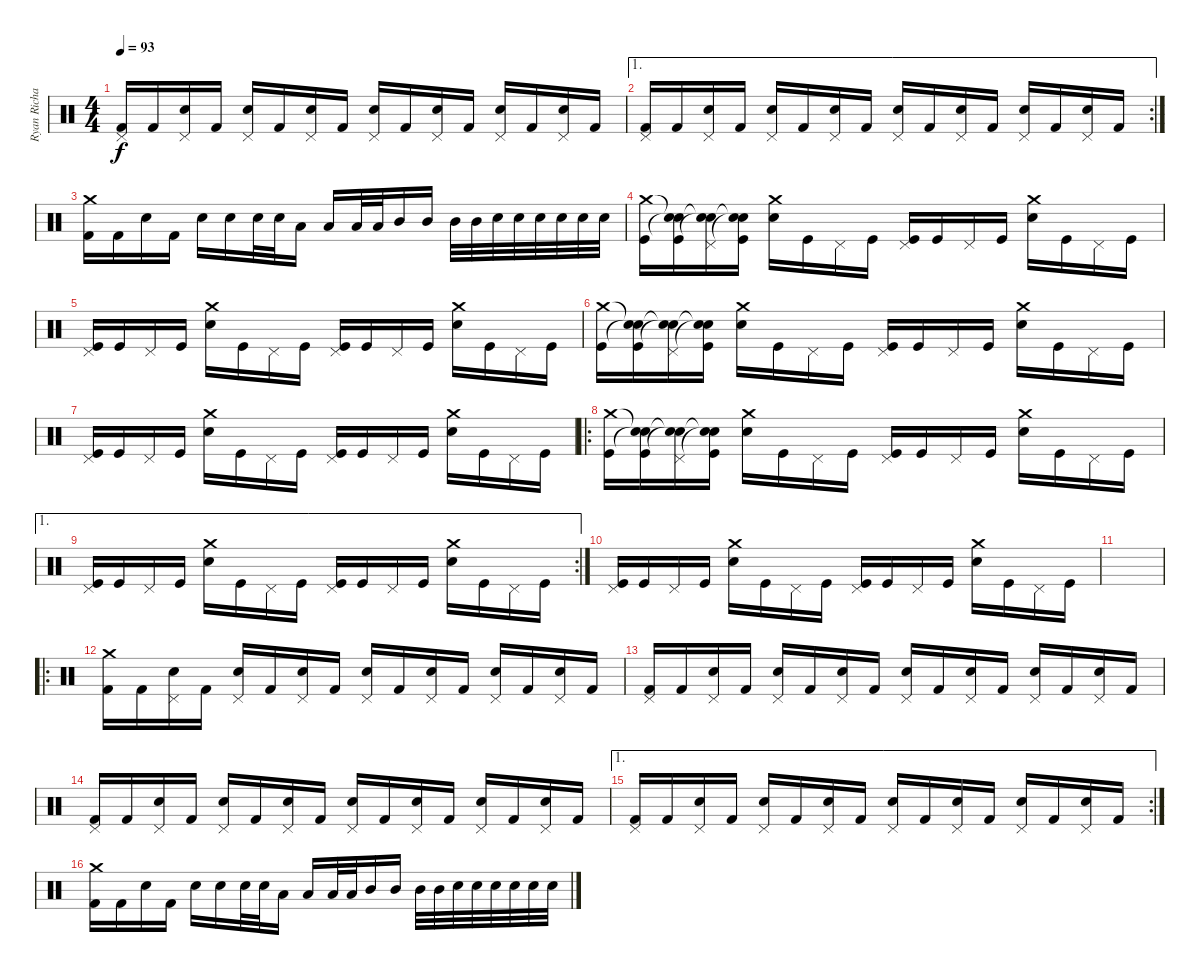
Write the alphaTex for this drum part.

\track ("Ryan Richards" "Ryan Richa") {instrument percussion}
\staff {score}
\articulation defaults
\ts (4 4)
\tempo 93
\clef neutral
\ks c
("Pedal Hi-Hat (hit)" "Kick (hit) 2").16{dy f} "Kick (hit) 2".16 ("Pedal Hi-Hat (hit)" "Electric Snare (hit)").16 "Kick (hit) 2".16 ("Pedal Hi-Hat (hit)" "Electric Snare (hit)").16 "Kick (hit) 2".16 ("Pedal Hi-Hat (hit)" "Electric Snare (hit)").16 "Kick (hit) 2".16 ("Pedal Hi-Hat (hit)" "Electric Snare (hit)").16 "Kick (hit) 2".16 ("Pedal Hi-Hat (hit)" "Electric Snare (hit)").16 "Kick (hit) 2".16 ("Pedal Hi-Hat (hit)" "Electric Snare (hit)").16 "Kick (hit) 2".16 ("Pedal Hi-Hat (hit)" "Electric Snare (hit)").16 "Kick (hit) 2".16 |
\ae 1
\rc 2
("Pedal Hi-Hat (hit)" "Kick (hit) 2").16 "Kick (hit) 2".16 ("Pedal Hi-Hat (hit)" "Electric Snare (hit)").16 "Kick (hit) 2".16 ("Pedal Hi-Hat (hit)" "Electric Snare (hit)").16 "Kick (hit) 2".16 ("Pedal Hi-Hat (hit)" "Electric Snare (hit)").16 "Kick (hit) 2".16 ("Pedal Hi-Hat (hit)" "Electric Snare (hit)").16 "Kick (hit) 2".16 ("Pedal Hi-Hat (hit)" "Electric Snare (hit)").16 "Kick (hit) 2".16 ("Pedal Hi-Hat (hit)" "Electric Snare (hit)").16 "Kick (hit) 2".16 ("Pedal Hi-Hat (hit)" "Electric Snare (hit)").16 "Kick (hit) 2".16 |
("Crash medium (hit)" "Kick (hit) 2").16 "Kick (hit) 2".16 "Electric Snare (hit)".16 "Kick (hit) 2".16 "Electric Snare (hit)".16 "Electric Snare (hit)".16 "Electric Snare (hit)".32 "Electric Snare (hit)".32 "Low Tom (hit)".16 "Low Tom (hit)".16 "Low Tom (hit)".32 "Low Tom (hit)".32 "Mid Tom (hit)".16 "Mid Tom (hit)".16 "Mid Tom (hit)".32 "Mid Tom (hit)".32 "Electric Snare (hit)".32 "Electric Snare (hit)".32 "Electric Snare (hit)".32 "Electric Snare (hit)".32 "Electric Snare (hit)".32 "Electric Snare (hit)".32 |
("Crash medium (hit)" "Kick (hit)").16 ("Snare (hit)"{t} "Snare (hit)"{t} "Kick (hit)").16 ("Snare (hit)"{t} "Pedal Hi-Hat (hit)" "Snare (hit)"{t}).16 ("Snare (hit)"{t} "Snare (hit)"{t} "Kick (hit)").16 ("Crash medium (hit)" "Electric Snare (hit)").16 "Kick (hit)".16 "Pedal Hi-Hat (hit)".16 "Kick (hit)".16 ("Pedal Hi-Hat (hit)" "Kick (hit)").16 "Kick (hit)".16 "Pedal Hi-Hat (hit)".16 "Kick (hit)".16 ("Crash medium (hit)" "Electric Snare (hit)").16 "Kick (hit)".16 "Pedal Hi-Hat (hit)".16 "Kick (hit)".16 |
("Pedal Hi-Hat (hit)" "Kick (hit)").16 "Kick (hit)".16 "Pedal Hi-Hat (hit)".16 "Kick (hit)".16 ("Crash medium (hit)" "Electric Snare (hit)").16 "Kick (hit)".16 "Pedal Hi-Hat (hit)".16 "Kick (hit)".16 ("Pedal Hi-Hat (hit)" "Kick (hit)").16 "Kick (hit)".16 "Pedal Hi-Hat (hit)".16 "Kick (hit)".16 ("Crash medium (hit)" "Electric Snare (hit)").16 "Kick (hit)".16 "Pedal Hi-Hat (hit)".16 "Kick (hit)".16 |
("Crash medium (hit)" "Kick (hit)").16 ("Snare (hit)"{t} "Snare (hit)"{t} "Kick (hit)").16 ("Snare (hit)"{t} "Pedal Hi-Hat (hit)" "Snare (hit)"{t}).16 ("Snare (hit)"{t} "Snare (hit)"{t} "Kick (hit)").16 ("Crash medium (hit)" "Electric Snare (hit)").16 "Kick (hit)".16 "Pedal Hi-Hat (hit)".16 "Kick (hit)".16 ("Pedal Hi-Hat (hit)" "Kick (hit)").16 "Kick (hit)".16 "Pedal Hi-Hat (hit)".16 "Kick (hit)".16 ("Crash medium (hit)" "Electric Snare (hit)").16 "Kick (hit)".16 "Pedal Hi-Hat (hit)".16 "Kick (hit)".16 |
("Pedal Hi-Hat (hit)" "Kick (hit)").16 "Kick (hit)".16 "Pedal Hi-Hat (hit)".16 "Kick (hit)".16 ("Crash medium (hit)" "Electric Snare (hit)").16 "Kick (hit)".16 "Pedal Hi-Hat (hit)".16 "Kick (hit)".16 ("Pedal Hi-Hat (hit)" "Kick (hit)").16 "Kick (hit)".16 "Pedal Hi-Hat (hit)".16 "Kick (hit)".16 ("Crash medium (hit)" "Electric Snare (hit)").16 "Kick (hit)".16 "Pedal Hi-Hat (hit)".16 "Kick (hit)".16 |
\ro
("Crash medium (hit)" "Kick (hit)").16 ("Snare (hit)"{t} "Snare (hit)"{t} "Kick (hit)").16 ("Snare (hit)"{t} "Pedal Hi-Hat (hit)" "Snare (hit)"{t}).16 ("Snare (hit)"{t} "Snare (hit)"{t} "Kick (hit)").16 ("Crash medium (hit)" "Electric Snare (hit)").16 "Kick (hit)".16 "Pedal Hi-Hat (hit)".16 "Kick (hit)".16 ("Pedal Hi-Hat (hit)" "Kick (hit)").16 "Kick (hit)".16 "Pedal Hi-Hat (hit)".16 "Kick (hit)".16 ("Crash medium (hit)" "Electric Snare (hit)").16 "Kick (hit)".16 "Pedal Hi-Hat (hit)".16 "Kick (hit)".16 |
\ae 1
\rc 2
("Pedal Hi-Hat (hit)" "Kick (hit)").16 "Kick (hit)".16 "Pedal Hi-Hat (hit)".16 "Kick (hit)".16 ("Crash medium (hit)" "Electric Snare (hit)").16 "Kick (hit)".16 "Pedal Hi-Hat (hit)".16 "Kick (hit)".16 ("Pedal Hi-Hat (hit)" "Kick (hit)").16 "Kick (hit)".16 "Pedal Hi-Hat (hit)".16 "Kick (hit)".16 ("Crash medium (hit)" "Electric Snare (hit)").16 "Kick (hit)".16 "Pedal Hi-Hat (hit)".16 "Kick (hit)".16 |
("Pedal Hi-Hat (hit)" "Kick (hit)").16 "Kick (hit)".16 "Pedal Hi-Hat (hit)".16 "Kick (hit)".16 ("Crash medium (hit)" "Electric Snare (hit)").16 "Kick (hit)".16 "Pedal Hi-Hat (hit)".16 "Kick (hit)".16 ("Pedal Hi-Hat (hit)" "Kick (hit)").16 "Kick (hit)".16 "Pedal Hi-Hat (hit)".16 "Kick (hit)".16 ("Crash medium (hit)" "Electric Snare (hit)").16 "Kick (hit)".16 "Pedal Hi-Hat (hit)".16 "Kick (hit)".16 |
|
\ro
("Crash medium (hit)" "Kick (hit) 2").16 "Kick (hit) 2".16 ("Pedal Hi-Hat (hit)" "Electric Snare (hit)").16 "Kick (hit) 2".16 ("Pedal Hi-Hat (hit)" "Electric Snare (hit)").16 "Kick (hit) 2".16 ("Pedal Hi-Hat (hit)" "Electric Snare (hit)").16 "Kick (hit) 2".16 ("Pedal Hi-Hat (hit)" "Electric Snare (hit)").16 "Kick (hit) 2".16 ("Pedal Hi-Hat (hit)" "Electric Snare (hit)").16 "Kick (hit) 2".16 ("Pedal Hi-Hat (hit)" "Electric Snare (hit)").16 "Kick (hit) 2".16 ("Pedal Hi-Hat (hit)" "Electric Snare (hit)").16 "Kick (hit) 2".16 |
("Pedal Hi-Hat (hit)" "Kick (hit) 2").16 "Kick (hit) 2".16 ("Pedal Hi-Hat (hit)" "Electric Snare (hit)").16 "Kick (hit) 2".16 ("Pedal Hi-Hat (hit)" "Electric Snare (hit)").16 "Kick (hit) 2".16 ("Pedal Hi-Hat (hit)" "Electric Snare (hit)").16 "Kick (hit) 2".16 ("Pedal Hi-Hat (hit)" "Electric Snare (hit)").16 "Kick (hit) 2".16 ("Pedal Hi-Hat (hit)" "Electric Snare (hit)").16 "Kick (hit) 2".16 ("Pedal Hi-Hat (hit)" "Electric Snare (hit)").16 "Kick (hit) 2".16 ("Pedal Hi-Hat (hit)" "Electric Snare (hit)").16 "Kick (hit) 2".16 |
("Pedal Hi-Hat (hit)" "Kick (hit) 2").16 "Kick (hit) 2".16 ("Pedal Hi-Hat (hit)" "Electric Snare (hit)").16 "Kick (hit) 2".16 ("Pedal Hi-Hat (hit)" "Electric Snare (hit)").16 "Kick (hit) 2".16 ("Pedal Hi-Hat (hit)" "Electric Snare (hit)").16 "Kick (hit) 2".16 ("Pedal Hi-Hat (hit)" "Electric Snare (hit)").16 "Kick (hit) 2".16 ("Pedal Hi-Hat (hit)" "Electric Snare (hit)").16 "Kick (hit) 2".16 ("Pedal Hi-Hat (hit)" "Electric Snare (hit)").16 "Kick (hit) 2".16 ("Pedal Hi-Hat (hit)" "Electric Snare (hit)").16 "Kick (hit) 2".16 |
\ae 1
\rc 2
("Pedal Hi-Hat (hit)" "Kick (hit) 2").16 "Kick (hit) 2".16 ("Pedal Hi-Hat (hit)" "Electric Snare (hit)").16 "Kick (hit) 2".16 ("Pedal Hi-Hat (hit)" "Electric Snare (hit)").16 "Kick (hit) 2".16 ("Pedal Hi-Hat (hit)" "Electric Snare (hit)").16 "Kick (hit) 2".16 ("Pedal Hi-Hat (hit)" "Electric Snare (hit)").16 "Kick (hit) 2".16 ("Pedal Hi-Hat (hit)" "Electric Snare (hit)").16 "Kick (hit) 2".16 ("Pedal Hi-Hat (hit)" "Electric Snare (hit)").16 "Kick (hit) 2".16 ("Pedal Hi-Hat (hit)" "Electric Snare (hit)").16 "Kick (hit) 2".16 |
("Crash medium (hit)" "Kick (hit) 2").16 "Kick (hit) 2".16 "Electric Snare (hit)".16 "Kick (hit) 2".16 "Electric Snare (hit)".16 "Electric Snare (hit)".16 "Electric Snare (hit)".32 "Electric Snare (hit)".32 "Low Tom (hit)".16 "Low Tom (hit)".16 "Low Tom (hit)".32 "Low Tom (hit)".32 "Mid Tom (hit)".16 "Mid Tom (hit)".16 "Mid Tom (hit)".32 "Mid Tom (hit)".32 "Electric Snare (hit)".32 "Electric Snare (hit)".32 "Electric Snare (hit)".32 "Electric Snare (hit)".32 "Electric Snare (hit)".32 "Electric Snare (hit)".32
